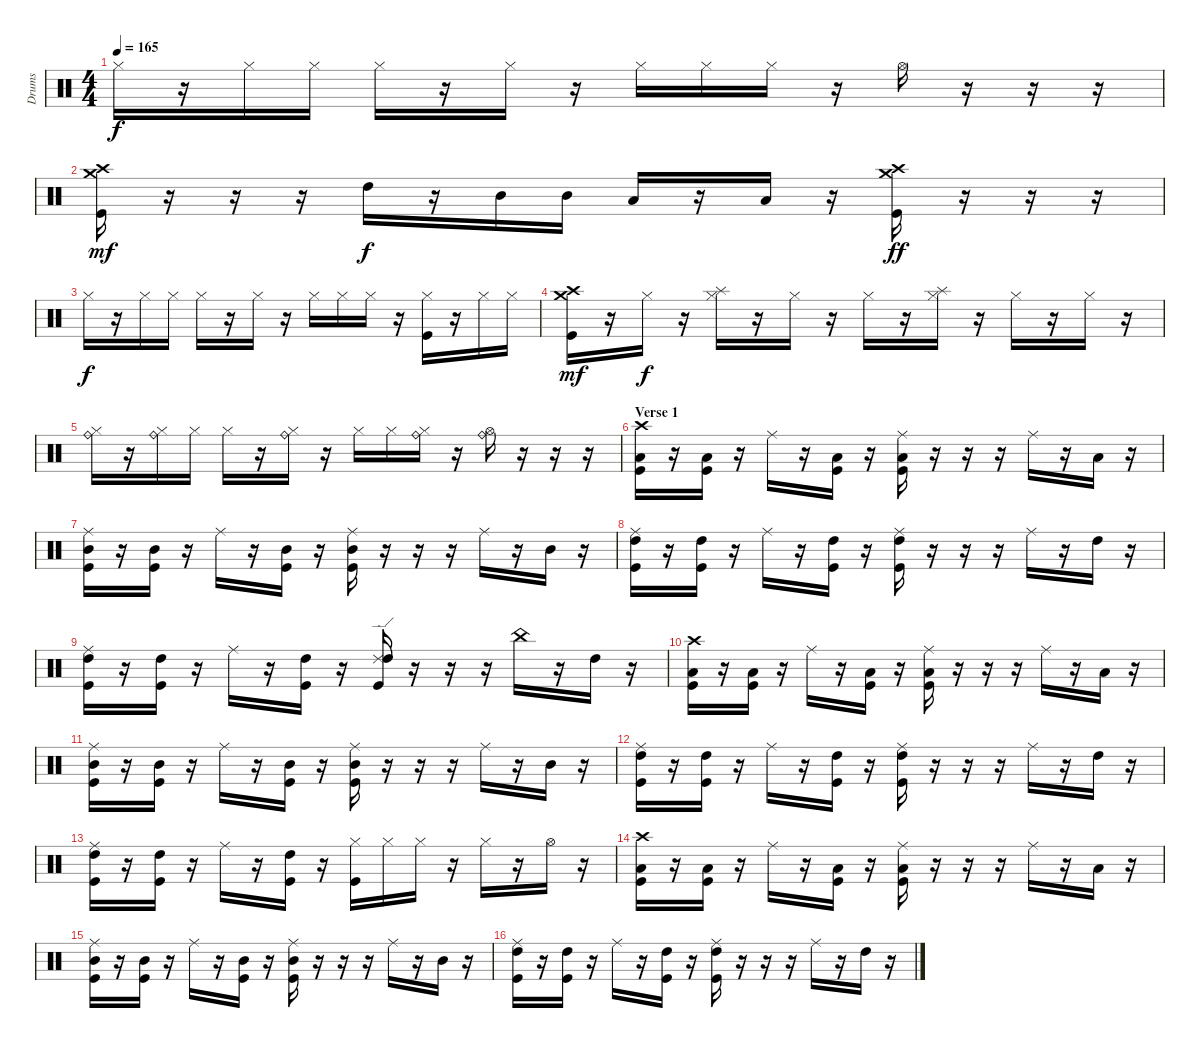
\track ("Drums" "Drums") {instrument percussion}
\staff {score}
\articulation defaults
\ts (4 4)
\tempo 165
\clef neutral
\ks c "Hi-Hat (closed)".16{dy f}
r.16 "Hi-Hat (closed)".16 "Hi-Hat (closed)".16 "Hi-Hat (closed)".16 r.16 "Hi-Hat (closed)".16 r.16 "Hi-Hat (closed)".16 "Hi-Hat (closed)".16 "Hi-Hat (closed)".16 r.16 "Hi-Hat (open)".16 r.16 r.16 r.16 |
("Crash high (hit)" "Crash medium (hit)" "Kick (hit)").16{dy mf} r.16 r.16 r.16 "High Tom (hit)".16{dy f} r.16 "Mid Tom (hit)".16 "Mid Tom (hit)".16 "Low Tom (hit)".16 r.16 "Low Tom (hit)".16 r.16 ("Crash high (hit)" "Crash medium (hit)" "Kick (hit)").16{dy ff} r.16 r.16 r.16 |
"Hi-Hat (closed)".16{dy f} r.16 "Hi-Hat (closed)".16 "Hi-Hat (closed)".16 "Hi-Hat (closed)".16 r.16 "Hi-Hat (closed)".16 r.16 "Hi-Hat (closed)".16 "Hi-Hat (closed)".16 "Hi-Hat (closed)".16 r.16 ("Hi-Hat (closed)" "Kick (hit)").16 r.16 "Hi-Hat (closed)".16 "Hi-Hat (closed)".16 |
("Crash high (hit)" "Crash medium (hit)" "Kick (hit)").16{dy mf} r.16 "Hi-Hat (closed)".16{dy f} r.16 ("Splash (hit)" "Hi-Hat (closed)").16 r.16 "Hi-Hat (closed)".16 r.16 "Hi-Hat (closed)".16 r.16 ("Splash (hit)" "Hi-Hat (closed)").16 r.16 "Hi-Hat (closed)".16 r.16 "Hi-Hat (closed)".16 r.16 |
("Ride (bell)" "Hi-Hat (closed)").16 r.16 ("Ride (bell)" "Hi-Hat (closed)").16 "Hi-Hat (closed)".16 "Hi-Hat (closed)".16 r.16 ("Ride (bell)" "Hi-Hat (closed)").16 r.16 "Hi-Hat (closed)".16 "Hi-Hat (closed)".16 ("Ride (bell)" "Hi-Hat (closed)").16 r.16 ("Ride (bell)" "Hi-Hat (open)").16 r.16 r.16 r.16 |
\section ("" "Verse 1")
("Crash high (hit)" "Low Tom (hit)" "Kick (hit)").16 r.16 ("Low Tom (hit)" "Kick (hit)").16 r.16 "Ride (middle)".16 r.16 ("Low Tom (hit)" "Kick (hit)").16 r.16 ("Ride (middle)" "Low Tom (hit)" "Kick (hit)").16 r.16 r.16 r.16 "Ride (middle)".16 r.16 "Low Tom (hit)".16 r.16 |
("Ride (middle)" "Mid Tom (hit)" "Kick (hit)").16 r.16 ("Mid Tom (hit)" "Kick (hit)").16 r.16 "Ride (middle)".16 r.16 ("Mid Tom (hit)" "Kick (hit)").16 r.16 ("Ride (middle)" "Mid Tom (hit)" "Kick (hit)").16 r.16 r.16 r.16 "Ride (middle)".16 r.16 "Mid Tom (hit)".16 r.16 |
("Ride (middle)" "High Tom (hit)" "Kick (hit)").16 r.16 ("High Tom (hit)" "Kick (hit)").16 r.16 "Ride (middle)".16 r.16 ("High Tom (hit)" "Kick (hit)").16 r.16 ("Ride (middle)" "High Tom (hit)" "Kick (hit)").16 r.16 r.16 r.16 "Ride (middle)".16 r.16 "High Tom (hit)".16 r.16 |
("Ride (middle)" "High Tom (hit)" "Kick (hit)").16 r.16 ("High Tom (hit)" "Kick (hit)").16 r.16 "Ride (middle)".16 r.16 ("High Tom (hit)" "Kick (hit)").16 r.16 ("Ride (edge) 2" "High Tom (hit)" "Kick (hit)").16 r.16 r.16 r.16 "China (hit)".16 r.16 "High Tom (hit)".16 r.16 |
("Crash high (hit)" "Low Tom (hit)" "Kick (hit)").16 r.16 ("Low Tom (hit)" "Kick (hit)").16 r.16 "Ride (middle)".16 r.16 ("Low Tom (hit)" "Kick (hit)").16 r.16 ("Ride (middle)" "Low Tom (hit)" "Kick (hit)").16 r.16 r.16 r.16 "Ride (middle)".16 r.16 "Low Tom (hit)".16 r.16 |
("Ride (middle)" "Mid Tom (hit)" "Kick (hit)").16 r.16 ("Mid Tom (hit)" "Kick (hit)").16 r.16 "Ride (middle)".16 r.16 ("Mid Tom (hit)" "Kick (hit)").16 r.16 ("Ride (middle)" "Mid Tom (hit)" "Kick (hit)").16 r.16 r.16 r.16 "Ride (middle)".16 r.16 "Mid Tom (hit)".16 r.16 |
("Ride (middle)" "High Tom (hit)" "Kick (hit)").16 r.16 ("High Tom (hit)" "Kick (hit)").16 r.16 "Ride (middle)".16 r.16 ("High Tom (hit)" "Kick (hit)").16 r.16 ("Ride (middle)" "High Tom (hit)" "Kick (hit)").16 r.16 r.16 r.16 "Ride (middle)".16 r.16 "High Tom (hit)".16 r.16 |
("Ride (middle)" "High Tom (hit)" "Kick (hit)").16 r.16 ("High Tom (hit)" "Kick (hit)").16 r.16 "Ride (middle)".16 r.16 ("High Tom (hit)" "Kick (hit)").16 r.16 ("Hi-Hat (closed)" "Kick (hit)").16 "Hi-Hat (closed)".16 "Hi-Hat (closed)".16 r.16 "Hi-Hat (closed)".16 r.16 "Hi-Hat (open)".16 r.16 |
("Crash high (hit)" "Low Tom (hit)" "Kick (hit)").16 r.16 ("Low Tom (hit)" "Kick (hit)").16 r.16 "Ride (middle)".16 r.16 ("Low Tom (hit)" "Kick (hit)").16 r.16 ("Ride (middle)" "Low Tom (hit)" "Kick (hit)").16 r.16 r.16 r.16 "Ride (middle)".16 r.16 "Low Tom (hit)".16 r.16 |
("Ride (middle)" "Mid Tom (hit)" "Kick (hit)").16 r.16 ("Mid Tom (hit)" "Kick (hit)").16 r.16 "Ride (middle)".16 r.16 ("Mid Tom (hit)" "Kick (hit)").16 r.16 ("Ride (middle)" "Mid Tom (hit)" "Kick (hit)").16 r.16 r.16 r.16 "Ride (middle)".16 r.16 "Mid Tom (hit)".16 r.16 |
("Ride (middle)" "High Tom (hit)" "Kick (hit)").16 r.16 ("High Tom (hit)" "Kick (hit)").16 r.16 "Ride (middle)".16 r.16 ("High Tom (hit)" "Kick (hit)").16 r.16 ("Ride (middle)" "High Tom (hit)" "Kick (hit)").16 r.16 r.16 r.16 "Ride (middle)".16 r.16 "High Tom (hit)".16 r.16
